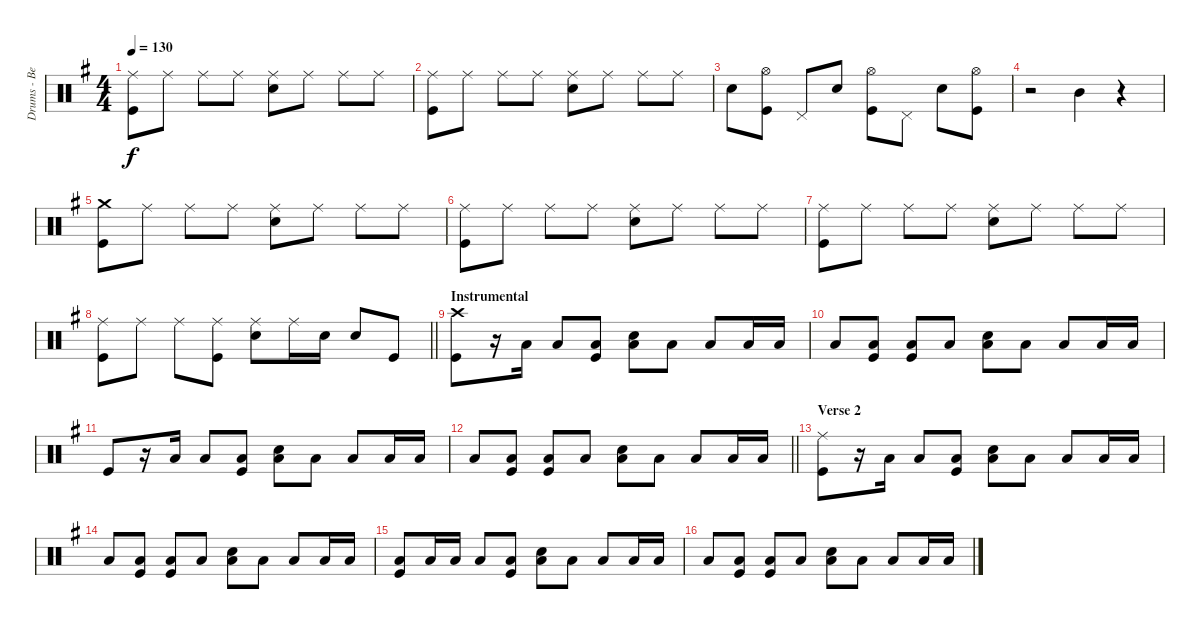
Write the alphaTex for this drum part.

\track ("Drums - Ben Johnston" "Drums - Be") {instrument percussion}
\staff {score}
\articulation defaults
\ts (4 4)
\tempo 130
\clef neutral
\ks eminor
("Ride (middle)" "Kick (hit)").8{dy f} "Ride (middle)".8 "Ride (middle)".8 "Ride (middle)".8 ("Ride (middle)" "Snare (hit) 2").8 "Ride (middle)".8 "Ride (middle)".8 "Ride (middle)".8 |
("Ride (middle)" "Kick (hit)").8 "Ride (middle)".8 "Ride (middle)".8 "Ride (middle)".8 ("Ride (middle)" "Snare (hit) 2").8 "Ride (middle)".8 "Ride (middle)".8 "Ride (middle)".8 |
"Snare (hit) 2".8 ("Hi-Hat (open)" "Kick (hit)").8 "Pedal Hi-Hat (hit)".8 "Snare (hit) 2".8 ("Hi-Hat (open)" "Kick (hit)").8 "Pedal Hi-Hat (hit)".8 "Snare (hit) 2".8 ("Hi-Hat (open)" "Kick (hit)").8 |
r.2 "Mid Tom (hit)".4 r.4 |
("Crash medium (hit)" "Kick (hit)").8 "Ride (middle)".8 "Ride (middle)".8 "Ride (middle)".8 ("Ride (middle)" "Snare (hit) 2").8 "Ride (middle)".8 "Ride (middle)".8 "Ride (middle)".8 |
("Ride (middle)" "Kick (hit)").8 "Ride (middle)".8 "Ride (middle)".8 "Ride (middle)".8 ("Ride (middle)" "Snare (hit) 2").8 "Ride (middle)".8 "Ride (middle)".8 "Ride (middle)".8 |
("Ride (middle)" "Kick (hit)").8 "Ride (middle)".8 "Ride (middle)".8 "Ride (middle)".8 ("Ride (middle)" "Snare (hit) 2").8 "Ride (middle)".8 "Ride (middle)".8 "Ride (middle)".8 |
\barLineRight lightlight
("Ride (middle)" "Kick (hit)").8 "Ride (middle)".8 "Ride (middle)".8 ("Ride (middle)" "Kick (hit)").8 ("Ride (middle)" "Snare (hit) 2").8 "Ride (middle)".16 "Snare (hit) 2".16 "Snare (hit) 2".8 "Kick (hit)".8 |
\section ("" "Instrumental")
("Crash high (hit)" "Kick (hit)").8 r.16 "Low Tom (hit)".16 "Low Tom (hit)".8 ("Low Tom (hit)" "Kick (hit)").8 ("Low Tom (hit)" "Snare (hit) 2").8 "Low Tom (hit)".8 "Low Tom (hit)".8 "Low Tom (hit)".16 "Low Tom (hit)".16 |
"Low Tom (hit)".8 ("Low Tom (hit)" "Kick (hit)").8 ("Low Tom (hit)" "Kick (hit)").8 "Low Tom (hit)".8 ("Low Tom (hit)" "Snare (hit) 2").8 "Low Tom (hit)".8 "Low Tom (hit)".8 "Low Tom (hit)".16 "Low Tom (hit)".16 |
"Kick (hit)".8 r.16 "Low Tom (hit)".16 "Low Tom (hit)".8 ("Low Tom (hit)" "Kick (hit)").8 ("Low Tom (hit)" "Snare (hit) 2").8 "Low Tom (hit)".8 "Low Tom (hit)".8 "Low Tom (hit)".16 "Low Tom (hit)".16 |
\barLineRight lightlight "Low Tom (hit)".8
("Low Tom (hit)" "Kick (hit)").8 ("Low Tom (hit)" "Kick (hit)").8 "Low Tom (hit)".8 ("Low Tom (hit)" "Snare (hit) 2").8 "Low Tom (hit)".8 "Low Tom (hit)".8 "Low Tom (hit)".16 "Low Tom (hit)".16 |
\section ("" "Verse 2")
("Ride (middle)" "Kick (hit)").8 r.16 "Low Tom (hit)".16 "Low Tom (hit)".8 ("Low Tom (hit)" "Kick (hit)").8 ("Low Tom (hit)" "Snare (hit) 2").8 "Low Tom (hit)".8 "Low Tom (hit)".8 "Low Tom (hit)".16 "Low Tom (hit)".16 |
"Low Tom (hit)".8 ("Low Tom (hit)" "Kick (hit)").8 ("Low Tom (hit)" "Kick (hit)").8 "Low Tom (hit)".8 ("Low Tom (hit)" "Snare (hit) 2").8 "Low Tom (hit)".8 "Low Tom (hit)".8 "Low Tom (hit)".16 "Low Tom (hit)".16 |
("Low Tom (hit)" "Kick (hit)").8 "Low Tom (hit)".16 "Low Tom (hit)".16 "Low Tom (hit)".8 ("Low Tom (hit)" "Kick (hit)").8 ("Low Tom (hit)" "Snare (hit) 2").8 "Low Tom (hit)".8 "Low Tom (hit)".8 "Low Tom (hit)".16 "Low Tom (hit)".16 |
"Low Tom (hit)".8 ("Low Tom (hit)" "Kick (hit)").8 ("Low Tom (hit)" "Kick (hit)").8 "Low Tom (hit)".8 ("Low Tom (hit)" "Snare (hit) 2").8 "Low Tom (hit)".8 "Low Tom (hit)".8 "Low Tom (hit)".16 "Low Tom (hit)".16
